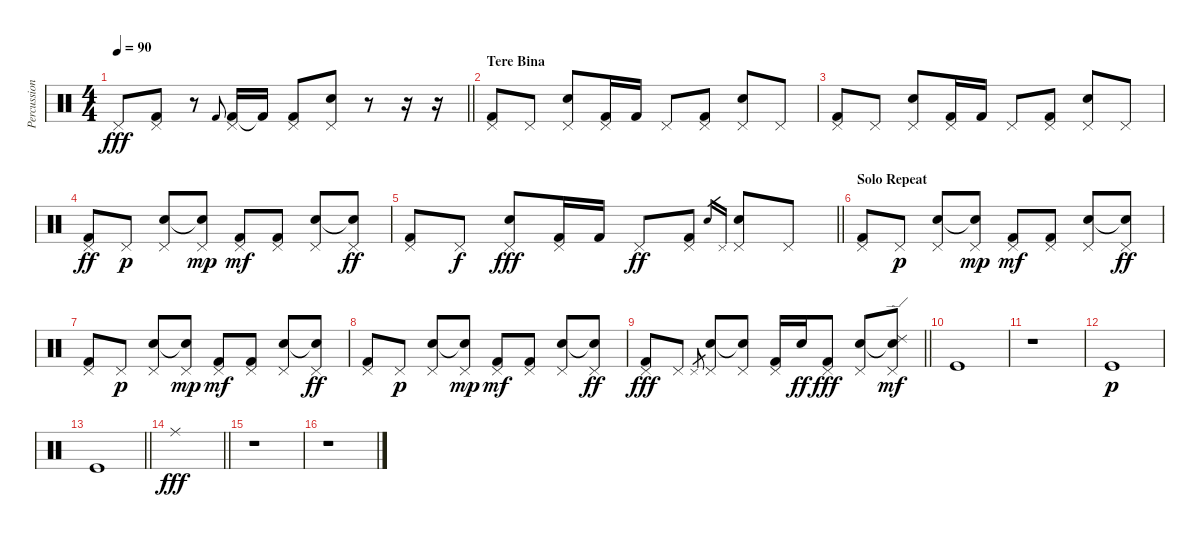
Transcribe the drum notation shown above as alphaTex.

\track ("Percussion" "Percussion") {instrument percussion}
\staff {score}
\articulation defaults
\ts (4 4)
\tempo 90
\clef neutral
\barLineRight lightlight
\ks c "Pedal Hi-Hat (hit)".8{dy fff}
("Kick (hit) 2" "Pedal Hi-Hat (hit)").8 r.8 "Kick (hit) 2".8{gr onbeat} ("Kick (hit) 2" "Pedal Hi-Hat (hit)").16 "Kick (hit) 2"{t}.16 ("Kick (hit) 2" "Pedal Hi-Hat (hit)").8 ("Electric Snare (hit)" "Pedal Hi-Hat (hit)").8 r.8 r.16 r.16 |
\section ("" "Tere Bina")
("Kick (hit) 2" "Pedal Hi-Hat (hit)").8 "Pedal Hi-Hat (hit)".8 ("Electric Snare (hit)" "Pedal Hi-Hat (hit)").8 ("Kick (hit) 2" "Pedal Hi-Hat (hit)").16 "Kick (hit) 2".16 "Pedal Hi-Hat (hit)".8 ("Kick (hit) 2" "Pedal Hi-Hat (hit)").8 ("Electric Snare (hit)" "Pedal Hi-Hat (hit)").8 "Pedal Hi-Hat (hit)".8 |
("Kick (hit) 2" "Pedal Hi-Hat (hit)").8 "Pedal Hi-Hat (hit)".8 ("Electric Snare (hit)" "Pedal Hi-Hat (hit)").8 ("Kick (hit) 2" "Pedal Hi-Hat (hit)").16 "Kick (hit) 2".16 "Pedal Hi-Hat (hit)".8 ("Kick (hit) 2" "Pedal Hi-Hat (hit)").8 ("Electric Snare (hit)" "Pedal Hi-Hat (hit)").8 "Pedal Hi-Hat (hit)".8 |
("Kick (hit) 2" "Pedal Hi-Hat (hit)").8{dy ff} "Pedal Hi-Hat (hit)".8{dy p} ("Electric Snare (hit)" "Pedal Hi-Hat (hit)").8 ("Snare (hit)"{t} "Pedal Hi-Hat (hit)").8{dy mp} ("Kick (hit) 2" "Pedal Hi-Hat (hit)").8{dy mf} ("Kick (hit) 2" "Pedal Hi-Hat (hit)").8 ("Electric Snare (hit)" "Pedal Hi-Hat (hit)").8 ("Snare (hit)"{t} "Pedal Hi-Hat (hit)").8{dy ff} |
\barLineRight lightlight
("Kick (hit) 2" "Pedal Hi-Hat (hit)").8 "Pedal Hi-Hat (hit)".8{dy f} ("Electric Snare (hit)" "Pedal Hi-Hat (hit)").8{dy fff} ("Kick (hit) 2" "Pedal Hi-Hat (hit)").16 "Kick (hit) 2".16 "Pedal Hi-Hat (hit)".8{dy ff} ("Kick (hit) 2" "Pedal Hi-Hat (hit)").8 "Electric Snare (hit)"{sl}.16{gr} "Pedal Hi-Hat (hit)".16{gr} ("Electric Snare (hit)" "Pedal Hi-Hat (hit)").8 "Pedal Hi-Hat (hit)".8 |
\section ("" "Solo Repeat")
("Kick (hit) 2" "Pedal Hi-Hat (hit)").8 "Pedal Hi-Hat (hit)".8{dy p} ("Electric Snare (hit)" "Pedal Hi-Hat (hit)").8 ("Snare (hit)"{t} "Pedal Hi-Hat (hit)").8{dy mp} ("Kick (hit) 2" "Pedal Hi-Hat (hit)").8{dy mf} ("Kick (hit) 2" "Pedal Hi-Hat (hit)").8 ("Electric Snare (hit)" "Pedal Hi-Hat (hit)").8 ("Snare (hit)"{t} "Pedal Hi-Hat (hit)").8{dy ff} |
("Kick (hit) 2" "Pedal Hi-Hat (hit)").8 "Pedal Hi-Hat (hit)".8{dy p} ("Electric Snare (hit)" "Pedal Hi-Hat (hit)").8 ("Snare (hit)"{t} "Pedal Hi-Hat (hit)").8{dy mp} ("Kick (hit) 2" "Pedal Hi-Hat (hit)").8{dy mf} ("Kick (hit) 2" "Pedal Hi-Hat (hit)").8 ("Electric Snare (hit)" "Pedal Hi-Hat (hit)").8 ("Snare (hit)"{t} "Pedal Hi-Hat (hit)").8{dy ff} |
("Kick (hit) 2" "Pedal Hi-Hat (hit)").8 "Pedal Hi-Hat (hit)".8{dy p} ("Electric Snare (hit)" "Pedal Hi-Hat (hit)").8 ("Snare (hit)"{t} "Pedal Hi-Hat (hit)").8{dy mp} ("Kick (hit) 2" "Pedal Hi-Hat (hit)").8{dy mf} ("Kick (hit) 2" "Pedal Hi-Hat (hit)").8 ("Electric Snare (hit)" "Pedal Hi-Hat (hit)").8 ("Snare (hit)"{t} "Pedal Hi-Hat (hit)").8{dy ff} |
\barLineRight lightlight
("Kick (hit) 2" "Pedal Hi-Hat (hit)").8{dy fff} "Pedal Hi-Hat (hit)".8 "Pedal Hi-Hat (hit)".8{gr} ("Electric Snare (hit)" "Pedal Hi-Hat (hit)").8 ("Snare (hit)"{t} "Pedal Hi-Hat (hit)").8 ("Kick (hit) 2" "Pedal Hi-Hat (hit)").16 "Electric Snare (hit)".16{dy ff} ("Kick (hit) 2" "Pedal Hi-Hat (hit)").8{dy fff} ("Electric Snare (hit)" "Pedal Hi-Hat (hit)").8 ("Snare (hit)"{t} "Pedal Hi-Hat (hit)" "Ride (edge) 2").8{dy mf} |
"Kick (hit)".1 |
r.1 |
"Kick (hit)".1{dy p} |
\barLineRight lightlight "Kick (hit)".1
|
\barLineRight lightlight "Ride (middle)".1{dy fff}
|
r.1 |
r.1
